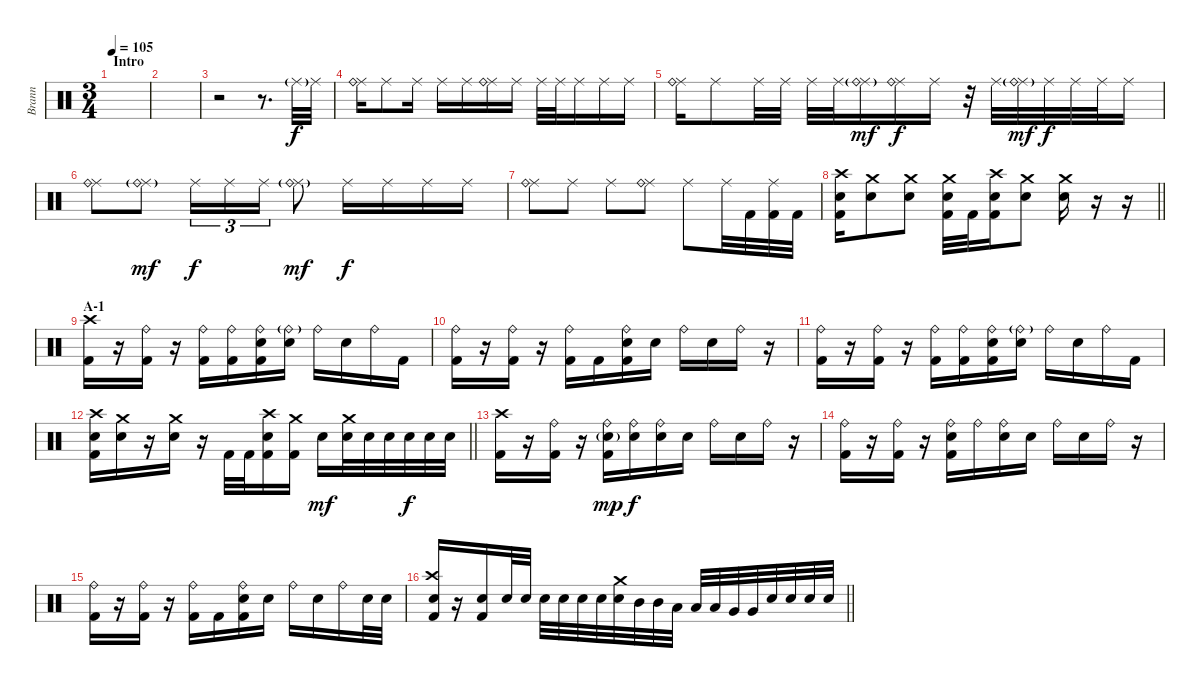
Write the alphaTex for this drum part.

\track ("Brann" "Brann") {instrument percussion}
\staff {score}
\articulation defaults
\ts (3 4)
\section ("" "Intro")
\tempo 105
\clef neutral
\ks c
|
|
r.2 r.8{d} "Ride (middle)"{g}.32 "Ride (middle)".32{dy f} |
("Ride (middle)" "Ride (bell)").16 "Ride (middle)".8 "Ride (middle)".16 "Ride (middle)".16 "Ride (middle)".16 ("Ride (middle)" "Ride (bell)").16 "Ride (middle)".16 "Ride (middle)".32 "Ride (middle)".32 "Ride (middle)".16 "Ride (middle)".16 "Ride (middle)".16 |
("Ride (middle)" "Ride (bell)").16 "Ride (middle)".8 "Ride (middle)".32 "Ride (middle)".32 "Ride (middle)".32 "Ride (middle)".32 ("Ride (middle)" "Ride (bell)"{g}).16{dy mf} ("Ride (middle)" "Ride (bell)").16{dy f} "Ride (middle)".16 r.32 "Ride (middle)".32 ("Ride (middle)" "Ride (bell)"{g}).32{dy mf} "Ride (middle)".32{dy f} "Ride (middle)".32 "Ride (middle)".32 "Ride (middle)".16 |
("Ride (middle)" "Ride (bell)").8 ("Ride (middle)" "Ride (bell)"{g}).8{dy mf} "Ride (middle)".16{tu (3 2) dy f} "Ride (middle)".16{tu (3 2)} "Ride (middle)".16{tu (3 2)} ("Ride (middle)" "Ride (bell)"{g}).8{dy mf} "Ride (middle)".16{dy f} "Ride (middle)".16 "Ride (middle)".16 "Ride (middle)".16 |
("Ride (middle)" "Ride (bell)").8 "Ride (middle)".8 "Ride (middle)".8 ("Ride (middle)" "Ride (bell)").8 "Ride (middle)".8 "Ride (middle)".32 "Kick (hit) 2".32 ("Ride (middle)" "Kick (hit) 2").32 "Kick (hit) 2".32 |
\barLineRight lightlight
("Crash high (hit)" "Snare (hit) 2" "Kick (hit) 2").16 ("Crash medium (hit)" "Snare (hit) 2").8 ("Crash medium (hit)" "Snare (hit) 2").8 ("Crash medium (hit)" "Snare (hit) 2" "Kick (hit) 2").32 "Kick (hit) 2".32 ("Crash high (hit)" "Snare (hit) 2" "Kick (hit) 2").16 ("Crash medium (hit)" "Snare (hit) 2").8 ("Crash medium (hit)" "Snare (hit) 2").16 r.16 r.16 |
\section ("" "A-1")
("Crash high (hit)" "Kick (hit) 2").16 r.16 ("Ride (bell)" "Kick (hit) 2").16 r.16 ("Ride (bell)" "Kick (hit) 2").16 ("Ride (bell)" "Kick (hit) 2").16 ("Ride (bell)" "Snare (hit) 2" "Kick (hit) 2").16 ("Ride (bell)"{g} "Snare (hit) 2").16 "Ride (bell)".16 "Snare (hit) 2".16 "Ride (bell)".16 "Kick (hit) 2".16 |
("Ride (bell)" "Kick (hit) 2").16 r.16 ("Ride (bell)" "Kick (hit) 2").16 r.16 ("Ride (bell)" "Kick (hit) 2").16 "Kick (hit) 2".16 ("Ride (bell)" "Snare (hit) 2" "Kick (hit) 2").16 "Snare (hit) 2".16 "Ride (bell)".16 "Snare (hit) 2".16 "Ride (bell)".16 r.16 |
("Ride (bell)" "Kick (hit) 2").16 r.16 ("Ride (bell)" "Kick (hit) 2").16 r.16 ("Ride (bell)" "Kick (hit) 2").16 ("Ride (bell)" "Kick (hit) 2").16 ("Ride (bell)" "Snare (hit) 2" "Kick (hit) 2").16 ("Ride (bell)"{g} "Snare (hit) 2").16 "Ride (bell)".16 "Snare (hit) 2".16 "Ride (bell)".16 "Kick (hit) 2".16 |
\barLineRight lightlight
("Crash high (hit)" "Snare (hit) 2" "Kick (hit) 2").16 ("Crash medium (hit)" "Snare (hit) 2").16 r.16 ("Crash medium (hit)" "Snare (hit) 2").16 r.16 "Kick (hit) 2".32 "Kick (hit) 2".32 ("Crash high (hit)" "Snare (hit) 2" "Kick (hit) 2").16 ("Crash medium (hit)" "Kick (hit) 2").16 "Snare (hit) 2".16{dy mf} ("Crash medium (hit)" "Snare (hit) 2").32 "Snare (hit) 2".32 "Snare (hit) 2".32 "Snare (hit) 2".32{dy f} "Snare (hit) 2".32 "Snare (hit) 2".32 |
("Crash high (hit)" "Kick (hit) 2").16 r.16 ("Ride (bell)" "Kick (hit) 2").16 r.16 ("Ride (bell)" "Electric Snare (hit)"{g} "Kick (hit) 2").16{dy mp} ("Ride (bell)" "Electric Snare (hit)").16{dy f} ("Ride (bell)" "Snare (hit) 2").16 "Snare (hit) 2".16 "Ride (bell)".16 "Snare (hit) 2".16 "Ride (bell)".16 r.16 |
("Ride (bell)" "Kick (hit) 2").16 r.16 ("Ride (bell)" "Kick (hit) 2").16 r.16 ("Ride (bell)" "Electric Snare (hit)" "Kick (hit) 2").16 "Ride (bell)".16 ("Ride (bell)" "Snare (hit) 2").16 "Snare (hit) 2".16 "Ride (bell)".16 "Snare (hit) 2".16 "Ride (bell)".16 r.16 |
("Ride (bell)" "Kick (hit) 2").16 r.16 ("Ride (bell)" "Kick (hit) 2").16 r.16 ("Ride (bell)" "Kick (hit) 2").16 "Kick (hit) 2".16 ("Ride (bell)" "Snare (hit) 2" "Kick (hit) 2").16 "Snare (hit) 2".16 "Ride (bell)".16 "Snare (hit) 2".16 "Ride (bell)".16 "Snare (hit) 2".32 "Snare (hit) 2".32 |
\barLineRight lightlight
("Crash high (hit)" "Snare (hit) 2" "Kick (hit) 2").16 r.16 ("Snare (hit) 2" "Kick (hit) 2").16 "Snare (hit) 2".32 "Snare (hit) 2".32 "Snare (hit) 2".32 "Snare (hit) 2".32 "Snare (hit) 2".32 "Snare (hit) 2".32 ("Crash medium (hit)" "Snare (hit) 2").32 "Mid Tom (hit)".32 "Mid Tom (hit)".32 "Low Tom (hit)".32 "Low Tom (hit)".32 "Low Tom (hit)".32 "Very Low Tom (hit)".32 "Very Low Tom (hit)".32 "Electric Snare (hit)".32 "Electric Snare (hit)".32 "Electric Snare (hit)".32 "Electric Snare (hit)".32
